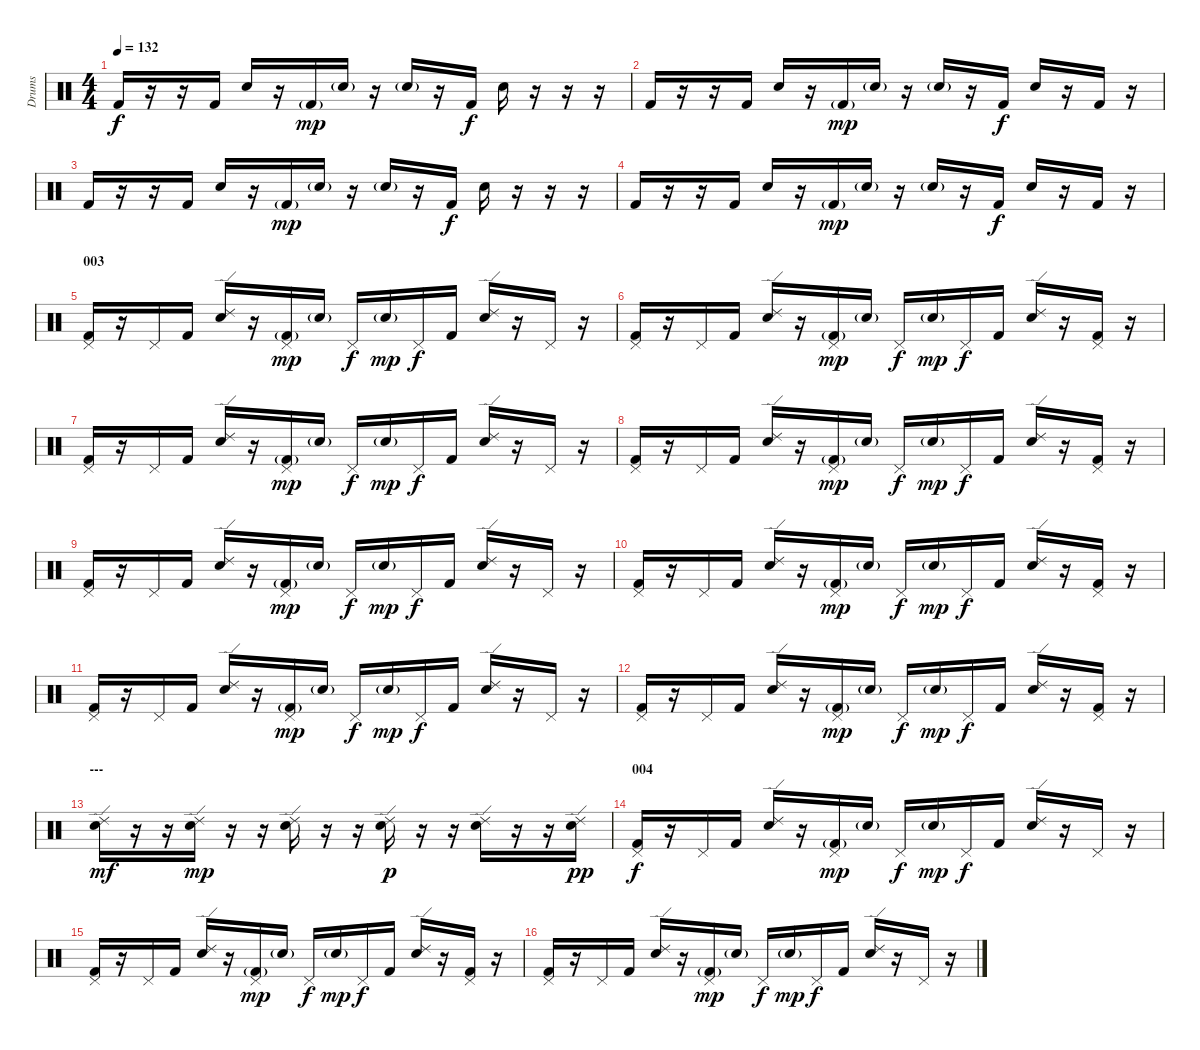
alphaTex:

\track ("Drums" "Drums") {instrument percussion}
\staff {score}
\articulation defaults
\ts (4 4)
\tempo 132
\clef neutral
\ks c "Kick (hit) 2".16{dy f}
r.16 r.16 "Kick (hit) 2".16 "Electric Snare (hit)".16 r.16 "Kick (hit) 2"{g}.16{dy mp} "Electric Snare (hit)"{g}.16 r.16 "Electric Snare (hit)"{g}.16 r.16 "Kick (hit) 2".16{dy f} "Electric Snare (hit)".16 r.16 r.16 r.16 |
"Kick (hit) 2".16 r.16 r.16 "Kick (hit) 2".16 "Electric Snare (hit)".16 r.16 "Kick (hit) 2"{g}.16{dy mp} "Electric Snare (hit)"{g}.16 r.16 "Electric Snare (hit)"{g}.16 r.16 "Kick (hit) 2".16{dy f} "Electric Snare (hit)".16 r.16 "Kick (hit) 2".16 r.16 |
"Kick (hit) 2".16 r.16 r.16 "Kick (hit) 2".16 "Electric Snare (hit)".16 r.16 "Kick (hit) 2"{g}.16{dy mp} "Electric Snare (hit)"{g}.16 r.16 "Electric Snare (hit)"{g}.16 r.16 "Kick (hit) 2".16{dy f} "Electric Snare (hit)".16 r.16 r.16 r.16 |
"Kick (hit) 2".16 r.16 r.16 "Kick (hit) 2".16 "Electric Snare (hit)".16 r.16 "Kick (hit) 2"{g}.16{dy mp} "Electric Snare (hit)"{g}.16 r.16 "Electric Snare (hit)"{g}.16 r.16 "Kick (hit) 2".16{dy f} "Electric Snare (hit)".16 r.16 "Kick (hit) 2".16 r.16 |
\section ("" "003")
("Kick (hit) 2" "Pedal Hi-Hat (hit)").16 r.16 "Pedal Hi-Hat (hit)".16 "Kick (hit) 2".16 ("Electric Snare (hit)" "Ride (edge) 2").16 r.16 ("Kick (hit) 2"{g} "Pedal Hi-Hat (hit)").16{dy mp} "Electric Snare (hit)"{g}.16 "Pedal Hi-Hat (hit)".16{dy f} "Electric Snare (hit)"{g}.16{dy mp} "Pedal Hi-Hat (hit)".16{dy f} "Kick (hit) 2".16 ("Electric Snare (hit)" "Ride (edge) 2").16 r.16 "Pedal Hi-Hat (hit)".16 r.16 |
("Kick (hit) 2" "Pedal Hi-Hat (hit)").16 r.16 "Pedal Hi-Hat (hit)".16 "Kick (hit) 2".16 ("Electric Snare (hit)" "Ride (edge) 2").16 r.16 ("Kick (hit) 2"{g} "Pedal Hi-Hat (hit)").16{dy mp} "Electric Snare (hit)"{g}.16 "Pedal Hi-Hat (hit)".16{dy f} "Electric Snare (hit)"{g}.16{dy mp} "Pedal Hi-Hat (hit)".16{dy f} "Kick (hit) 2".16 ("Electric Snare (hit)" "Ride (edge) 2").16 r.16 ("Kick (hit) 2" "Pedal Hi-Hat (hit)").16 r.16 |
("Kick (hit) 2" "Pedal Hi-Hat (hit)").16 r.16 "Pedal Hi-Hat (hit)".16 "Kick (hit) 2".16 ("Electric Snare (hit)" "Ride (edge) 2").16 r.16 ("Kick (hit) 2"{g} "Pedal Hi-Hat (hit)").16{dy mp} "Electric Snare (hit)"{g}.16 "Pedal Hi-Hat (hit)".16{dy f} "Electric Snare (hit)"{g}.16{dy mp} "Pedal Hi-Hat (hit)".16{dy f} "Kick (hit) 2".16 ("Electric Snare (hit)" "Ride (edge) 2").16 r.16 "Pedal Hi-Hat (hit)".16 r.16 |
("Kick (hit) 2" "Pedal Hi-Hat (hit)").16 r.16 "Pedal Hi-Hat (hit)".16 "Kick (hit) 2".16 ("Electric Snare (hit)" "Ride (edge) 2").16 r.16 ("Kick (hit) 2"{g} "Pedal Hi-Hat (hit)").16{dy mp} "Electric Snare (hit)"{g}.16 "Pedal Hi-Hat (hit)".16{dy f} "Electric Snare (hit)"{g}.16{dy mp} "Pedal Hi-Hat (hit)".16{dy f} "Kick (hit) 2".16 ("Electric Snare (hit)" "Ride (edge) 2").16 r.16 ("Kick (hit) 2" "Pedal Hi-Hat (hit)").16 r.16 |
("Kick (hit) 2" "Pedal Hi-Hat (hit)").16 r.16 "Pedal Hi-Hat (hit)".16 "Kick (hit) 2".16 ("Electric Snare (hit)" "Ride (edge) 2").16 r.16 ("Kick (hit) 2"{g} "Pedal Hi-Hat (hit)").16{dy mp} "Electric Snare (hit)"{g}.16 "Pedal Hi-Hat (hit)".16{dy f} "Electric Snare (hit)"{g}.16{dy mp} "Pedal Hi-Hat (hit)".16{dy f} "Kick (hit) 2".16 ("Electric Snare (hit)" "Ride (edge) 2").16 r.16 "Pedal Hi-Hat (hit)".16 r.16 |
("Kick (hit) 2" "Pedal Hi-Hat (hit)").16 r.16 "Pedal Hi-Hat (hit)".16 "Kick (hit) 2".16 ("Electric Snare (hit)" "Ride (edge) 2").16 r.16 ("Kick (hit) 2"{g} "Pedal Hi-Hat (hit)").16{dy mp} "Electric Snare (hit)"{g}.16 "Pedal Hi-Hat (hit)".16{dy f} "Electric Snare (hit)"{g}.16{dy mp} "Pedal Hi-Hat (hit)".16{dy f} "Kick (hit) 2".16 ("Electric Snare (hit)" "Ride (edge) 2").16 r.16 ("Kick (hit) 2" "Pedal Hi-Hat (hit)").16 r.16 |
("Kick (hit) 2" "Pedal Hi-Hat (hit)").16 r.16 "Pedal Hi-Hat (hit)".16 "Kick (hit) 2".16 ("Electric Snare (hit)" "Ride (edge) 2").16 r.16 ("Kick (hit) 2"{g} "Pedal Hi-Hat (hit)").16{dy mp} "Electric Snare (hit)"{g}.16 "Pedal Hi-Hat (hit)".16{dy f} "Electric Snare (hit)"{g}.16{dy mp} "Pedal Hi-Hat (hit)".16{dy f} "Kick (hit) 2".16 ("Electric Snare (hit)" "Ride (edge) 2").16 r.16 "Pedal Hi-Hat (hit)".16 r.16 |
("Kick (hit) 2" "Pedal Hi-Hat (hit)").16 r.16 "Pedal Hi-Hat (hit)".16 "Kick (hit) 2".16 ("Electric Snare (hit)" "Ride (edge) 2").16 r.16 ("Kick (hit) 2"{g} "Pedal Hi-Hat (hit)").16{dy mp} "Electric Snare (hit)"{g}.16 "Pedal Hi-Hat (hit)".16{dy f} "Electric Snare (hit)"{g}.16{dy mp} "Pedal Hi-Hat (hit)".16{dy f} "Kick (hit) 2".16 ("Electric Snare (hit)" "Ride (edge) 2").16 r.16 ("Kick (hit) 2" "Pedal Hi-Hat (hit)").16 r.16 |
\section ("" "---")
("Electric Snare (hit)" "Ride (edge) 2").16{dy mf balance 12} r.16 r.16 ("Electric Snare (hit)" "Ride (edge) 2").16{dy mp balance 4} r.16 r.16 ("Electric Snare (hit)" "Ride (edge) 2").16{balance 12} r.16 r.16 ("Electric Snare (hit)" "Ride (edge) 2").16{dy p balance 4} r.16 r.16 ("Electric Snare (hit)" "Ride (edge) 2").16{balance 12} r.16 r.16 ("Electric Snare (hit)" "Ride (edge) 2").16{dy pp balance 4} |
\section ("" "004")
("Kick (hit) 2" "Pedal Hi-Hat (hit)").16{dy f balance 8} r.16 "Pedal Hi-Hat (hit)".16 "Kick (hit) 2".16 ("Electric Snare (hit)" "Ride (edge) 2").16 r.16 ("Kick (hit) 2"{g} "Pedal Hi-Hat (hit)").16{dy mp} "Electric Snare (hit)"{g}.16 "Pedal Hi-Hat (hit)".16{dy f} "Electric Snare (hit)"{g}.16{dy mp} "Pedal Hi-Hat (hit)".16{dy f} "Kick (hit) 2".16 ("Electric Snare (hit)" "Ride (edge) 2").16 r.16 "Pedal Hi-Hat (hit)".16 r.16 |
("Kick (hit) 2" "Pedal Hi-Hat (hit)").16 r.16 "Pedal Hi-Hat (hit)".16 "Kick (hit) 2".16 ("Electric Snare (hit)" "Ride (edge) 2").16 r.16 ("Kick (hit) 2"{g} "Pedal Hi-Hat (hit)").16{dy mp} "Electric Snare (hit)"{g}.16 "Pedal Hi-Hat (hit)".16{dy f} "Electric Snare (hit)"{g}.16{dy mp} "Pedal Hi-Hat (hit)".16{dy f} "Kick (hit) 2".16 ("Electric Snare (hit)" "Ride (edge) 2").16 r.16 ("Kick (hit) 2" "Pedal Hi-Hat (hit)").16 r.16 |
("Kick (hit) 2" "Pedal Hi-Hat (hit)").16 r.16 "Pedal Hi-Hat (hit)".16 "Kick (hit) 2".16 ("Electric Snare (hit)" "Ride (edge) 2").16 r.16 ("Kick (hit) 2"{g} "Pedal Hi-Hat (hit)").16{dy mp} "Electric Snare (hit)"{g}.16 "Pedal Hi-Hat (hit)".16{dy f} "Electric Snare (hit)"{g}.16{dy mp} "Pedal Hi-Hat (hit)".16{dy f} "Kick (hit) 2".16 ("Electric Snare (hit)" "Ride (edge) 2").16 r.16 "Pedal Hi-Hat (hit)".16 r.16
